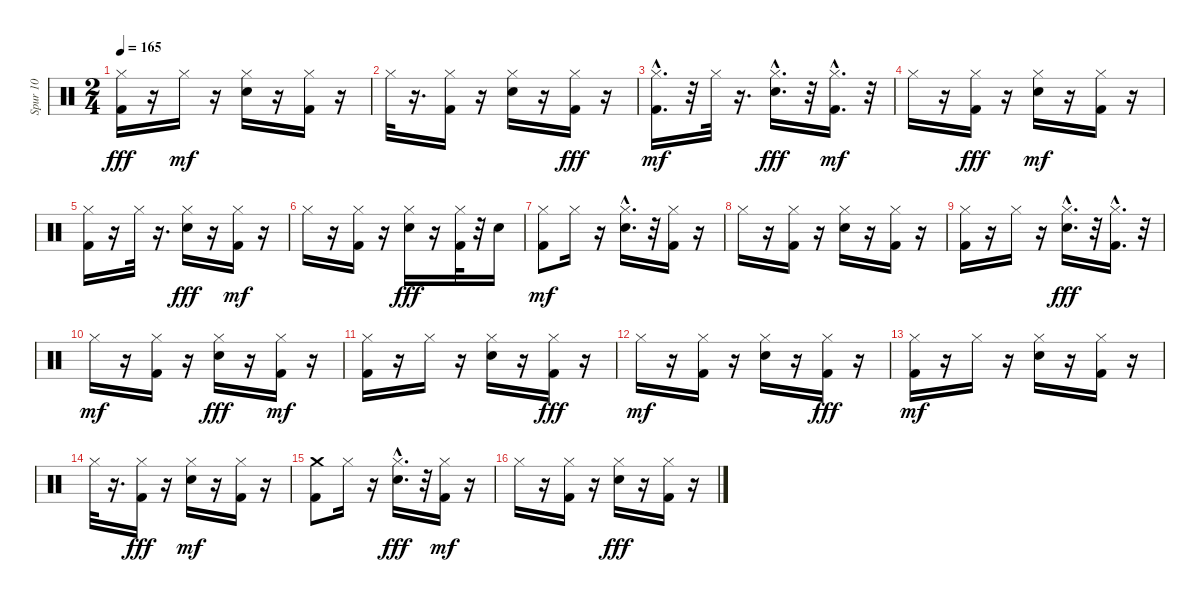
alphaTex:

\track ("Spur 10" "Spur 10") {instrument percussion}
\staff {score}
\articulation defaults
\ts (2 4)
\tempo 165
\clef neutral
\ks c
("Hi-Hat (closed)" "Kick (hit) 2").16{dy fff} r.16 "Hi-Hat (closed)".16{dy mf} r.16 ("Electric Snare (hit)" "Hi-Hat (closed)").16 r.16 ("Kick (hit) 2" "Hi-Hat (closed)").16 r.16 |
"Hi-Hat (closed)".32 r.16{d} ("Kick (hit) 2" "Hi-Hat (closed)").16 r.16 ("Electric Snare (hit)" "Hi-Hat (closed)").16 r.16 ("Hi-Hat (closed)" "Kick (hit) 2").16{dy fff} r.16 |
("Kick (hit) 2"{hac} "Hi-Hat (closed)").16{d dy mf} r.32 "Hi-Hat (closed)".32 r.16{d} ("Hi-Hat (closed)" "Electric Snare (hit)"{hac}).16{d dy fff} r.32 ("Kick (hit) 2"{hac} "Hi-Hat (closed)").16{d dy mf} r.32 |
"Hi-Hat (closed)".16 r.16 ("Hi-Hat (closed)" "Kick (hit) 2").16{dy fff} r.16 ("Electric Snare (hit)" "Hi-Hat (closed)").16{dy mf} r.16 ("Kick (hit) 2" "Hi-Hat (closed)").16 r.16 |
("Kick (hit) 2" "Hi-Hat (closed)").16 r.16 "Hi-Hat (closed)".32 r.16{d} ("Hi-Hat (closed)" "Electric Snare (hit)").16{dy fff} r.16 ("Kick (hit) 2" "Hi-Hat (closed)").16{dy mf} r.16 |
"Hi-Hat (closed)".16 r.16 ("Kick (hit) 2" "Hi-Hat (closed)").16 r.16 ("Hi-Hat (closed)" "Electric Snare (hit)").16{dy fff} r.16 ("Hi-Hat (closed)" "Kick (hit) 2").32 r.32 "Electric Snare (hit)".16 |
("Kick (hit) 2" "Hi-Hat (closed)").8{dy mf} "Hi-Hat (closed)".16 r.16 ("Electric Snare (hit)"{hac} "Hi-Hat (closed)").16{d} r.32 ("Kick (hit) 2" "Hi-Hat (closed)").16 r.16 |
"Hi-Hat (closed)".16 r.16 ("Kick (hit) 2" "Hi-Hat (closed)").16 r.16 ("Electric Snare (hit)" "Hi-Hat (closed)").16 r.16 ("Kick (hit) 2" "Hi-Hat (closed)").16 r.16 |
("Kick (hit) 2" "Hi-Hat (closed)").16 r.16 "Hi-Hat (closed)".16 r.16 ("Hi-Hat (closed)" "Electric Snare (hit)"{hac}).16{d dy fff} r.32 ("Hi-Hat (closed)" "Kick (hit) 2"{hac}).16{d} r.32 |
"Hi-Hat (closed)".16{dy mf} r.16 ("Kick (hit) 2" "Hi-Hat (closed)").16 r.16 ("Hi-Hat (closed)" "Electric Snare (hit)").16{dy fff} r.16 ("Kick (hit) 2" "Hi-Hat (closed)").16{dy mf} r.16 |
("Kick (hit) 2" "Hi-Hat (closed)").16 r.16 "Hi-Hat (closed)".16 r.16 ("Electric Snare (hit)" "Hi-Hat (closed)").16 r.16 ("Hi-Hat (closed)" "Kick (hit) 2").16{dy fff} r.16 |
"Hi-Hat (closed)".16{dy mf} r.16 ("Kick (hit) 2" "Hi-Hat (closed)").16 r.16 ("Electric Snare (hit)" "Hi-Hat (closed)").16 r.16 ("Hi-Hat (closed)" "Kick (hit) 2").16{dy fff} r.16 |
("Kick (hit) 2" "Hi-Hat (closed)").16{dy mf} r.16 "Hi-Hat (closed)".16 r.16 ("Electric Snare (hit)" "Hi-Hat (closed)").16 r.16 ("Kick (hit) 2" "Hi-Hat (closed)").16 r.16 |
"Hi-Hat (closed)".32 r.16{d} ("Hi-Hat (closed)" "Kick (hit) 2").16{dy fff} r.16 ("Electric Snare (hit)" "Hi-Hat (closed)").16{dy mf} r.16 ("Kick (hit) 2" "Hi-Hat (closed)").16 r.16 |
("Kick (hit) 2" "Crash medium (hit)").8 "Hi-Hat (closed)".16 r.16 ("Hi-Hat (closed)" "Electric Snare (hit)"{hac}).16{d dy fff} r.32 ("Kick (hit) 2" "Hi-Hat (closed)").16{dy mf} r.16 |
"Hi-Hat (closed)".16 r.16 ("Kick (hit) 2" "Hi-Hat (closed)").16 r.16 ("Hi-Hat (closed)" "Electric Snare (hit)").16{dy fff} r.16 ("Hi-Hat (closed)" "Kick (hit) 2").16 r.16
